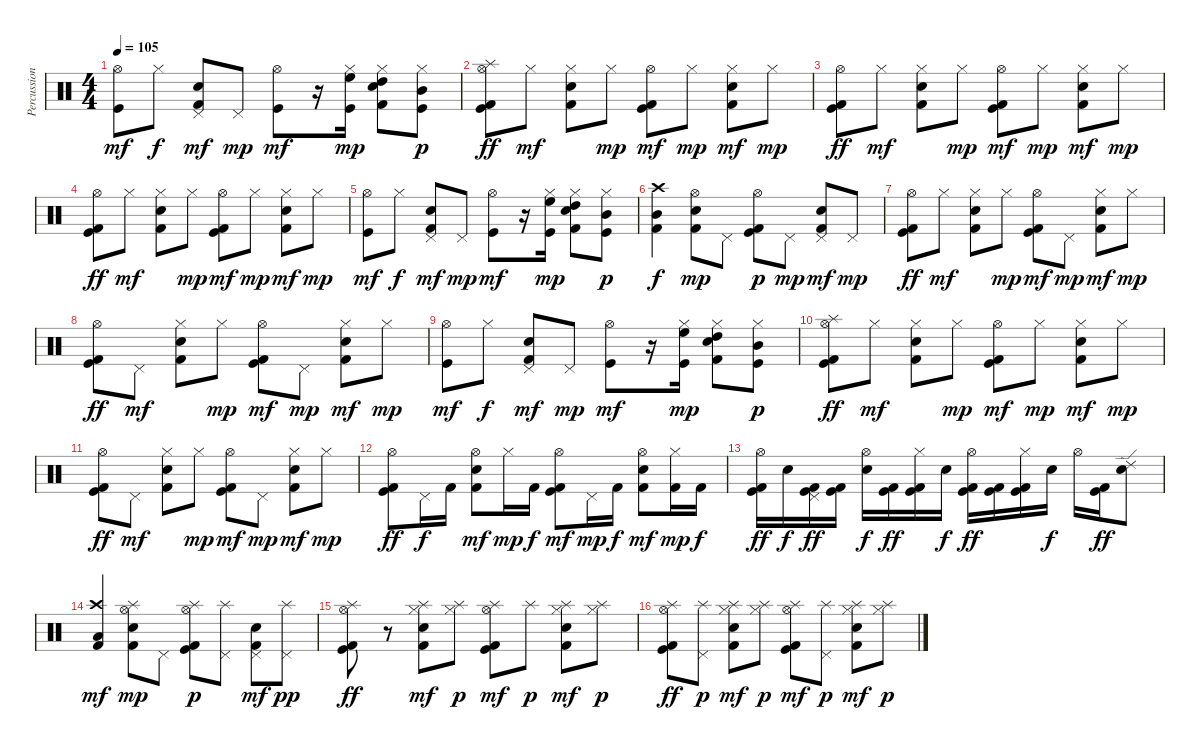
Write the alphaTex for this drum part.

\track ("Percussion" "Percussion") {instrument percussion}
\staff {score}
\articulation defaults
\ts (4 4)
\tempo 105
\clef neutral
\ks c
("Hi-Hat (open)" "Kick (hit)").8{dy mf} "Hi-Hat (closed)".8{dy f} ("Electric Snare (hit)" "Pedal Hi-Hat (hit)" "Kick (hit) 2").8{dy mf} "Pedal Hi-Hat (hit)".8{dy mp} ("Hi-Hat (open)" "Kick (hit)").8{dy mf} r.16 ("Hi-Hat (closed)" "High Floor Tom (hit)" "Kick (hit)").16{dy mp} ("Electric Snare (hit)" "Hi-Hat (closed)" "High Tom (hit)" "Kick (hit) 2").8 ("Hi-Hat (closed)" "Mid Tom (hit)" "Kick (hit)").8{dy p} |
("Splash (hit)" "Hi-Hat (open)" "Kick (hit)" "Kick (hit) 2").8{dy ff} "Hi-Hat (closed)".8{dy mf} ("Electric Snare (hit)" "Hi-Hat (closed)" "Kick (hit) 2").8 "Hi-Hat (closed)".8{dy mp} ("Hi-Hat (open)" "Kick (hit)" "Kick (hit) 2").8{dy mf} "Hi-Hat (closed)".8{dy mp} ("Electric Snare (hit)" "Hi-Hat (closed)" "Kick (hit) 2").8{dy mf} "Hi-Hat (closed)".8{dy mp} |
("Hi-Hat (open)" "Kick (hit)" "Kick (hit) 2").8{dy ff} "Hi-Hat (closed)".8{dy mf} ("Electric Snare (hit)" "Hi-Hat (closed)" "Kick (hit) 2").8 "Hi-Hat (closed)".8{dy mp} ("Hi-Hat (open)" "Kick (hit)" "Kick (hit) 2").8{dy mf} "Hi-Hat (closed)".8{dy mp} ("Electric Snare (hit)" "Hi-Hat (closed)" "Kick (hit) 2").8{dy mf} "Hi-Hat (closed)".8{dy mp} |
("Hi-Hat (open)" "Kick (hit)" "Kick (hit) 2").8{dy ff} "Hi-Hat (closed)".8{dy mf} ("Electric Snare (hit)" "Hi-Hat (closed)" "Kick (hit) 2").8 "Hi-Hat (closed)".8{dy mp} ("Hi-Hat (open)" "Kick (hit)" "Kick (hit) 2").8{dy mf} "Hi-Hat (closed)".8{dy mp} ("Electric Snare (hit)" "Hi-Hat (closed)" "Kick (hit) 2").8{dy mf} "Hi-Hat (closed)".8{dy mp} |
("Hi-Hat (open)" "Kick (hit)").8{dy mf} "Hi-Hat (closed)".8{dy f} ("Electric Snare (hit)" "Pedal Hi-Hat (hit)" "Kick (hit) 2").8{dy mf} "Pedal Hi-Hat (hit)".8{dy mp} ("Hi-Hat (open)" "Kick (hit)").8{dy mf} r.16 ("Hi-Hat (closed)" "High Floor Tom (hit)" "Kick (hit)").16{dy mp} ("Electric Snare (hit)" "Hi-Hat (closed)" "High Tom (hit)" "Kick (hit) 2").8 ("Hi-Hat (closed)" "Mid Tom (hit)" "Kick (hit)").8{dy p} |
("Crash high (hit)" "Mid Tom (hit)" "Kick (hit) 2").4{dy f} ("Electric Snare (hit)" "Hi-Hat (open)" "Kick (hit) 2").8{dy mp} "Pedal Hi-Hat (hit)".8 ("Hi-Hat (open)" "Kick (hit)" "Kick (hit) 2").8{dy p} "Pedal Hi-Hat (hit)".8{dy mp} ("Electric Snare (hit)" "Pedal Hi-Hat (hit)" "Kick (hit) 2").8{dy mf} "Pedal Hi-Hat (hit)".8{dy mp} |
("Hi-Hat (open)" "Kick (hit)" "Kick (hit) 2").8{dy ff} "Hi-Hat (closed)".8{dy mf} ("Electric Snare (hit)" "Hi-Hat (closed)" "Kick (hit) 2").8 "Hi-Hat (closed)".8{dy mp} ("Hi-Hat (open)" "Kick (hit)" "Kick (hit) 2").8{dy mf} "Pedal Hi-Hat (hit)".8{dy mp} ("Electric Snare (hit)" "Hi-Hat (closed)" "Kick (hit) 2").8{dy mf} "Hi-Hat (closed)".8{dy mp} |
("Hi-Hat (open)" "Kick (hit)" "Kick (hit) 2").8{dy ff} "Pedal Hi-Hat (hit)".8{dy mf} ("Electric Snare (hit)" "Hi-Hat (closed)" "Kick (hit) 2").8 "Hi-Hat (closed)".8{dy mp} ("Hi-Hat (open)" "Kick (hit)" "Kick (hit) 2").8{dy mf} "Pedal Hi-Hat (hit)".8{dy mp} ("Electric Snare (hit)" "Hi-Hat (closed)" "Kick (hit) 2").8{dy mf} "Hi-Hat (closed)".8{dy mp} |
("Hi-Hat (open)" "Kick (hit)").8{dy mf} "Hi-Hat (closed)".8{dy f} ("Electric Snare (hit)" "Pedal Hi-Hat (hit)" "Kick (hit) 2").8{dy mf} "Pedal Hi-Hat (hit)".8{dy mp} ("Hi-Hat (open)" "Kick (hit)").8{dy mf} r.16 ("Hi-Hat (closed)" "High Floor Tom (hit)" "Kick (hit)").16{dy mp} ("Electric Snare (hit)" "Hi-Hat (closed)" "High Tom (hit)" "Kick (hit) 2").8 ("Hi-Hat (closed)" "Mid Tom (hit)" "Kick (hit)").8{dy p} |
("Splash (hit)" "Hi-Hat (open)" "Kick (hit)" "Kick (hit) 2").8{dy ff} "Hi-Hat (closed)".8{dy mf} ("Electric Snare (hit)" "Hi-Hat (closed)" "Kick (hit) 2").8 "Hi-Hat (closed)".8{dy mp} ("Hi-Hat (open)" "Kick (hit)" "Kick (hit) 2").8{dy mf} "Hi-Hat (closed)".8{dy mp} ("Electric Snare (hit)" "Hi-Hat (closed)" "Kick (hit) 2").8{dy mf} "Hi-Hat (closed)".8{dy mp} |
("Hi-Hat (open)" "Kick (hit)" "Kick (hit) 2").8{dy ff} "Pedal Hi-Hat (hit)".8{dy mf} ("Electric Snare (hit)" "Hi-Hat (closed)" "Kick (hit) 2").8 "Hi-Hat (closed)".8{dy mp} ("Hi-Hat (open)" "Kick (hit)" "Kick (hit) 2").8{dy mf} "Pedal Hi-Hat (hit)".8{dy mp} ("Electric Snare (hit)" "Hi-Hat (closed)" "Kick (hit) 2").8{dy mf} "Hi-Hat (closed)".8{dy mp} |
("Hi-Hat (open)" "Kick (hit)" "Kick (hit) 2").8{dy ff} "Pedal Hi-Hat (hit)".16{dy f} "Kick (hit) 2".16 ("Electric Snare (hit)" "Hi-Hat (open)" "Kick (hit) 2").8{dy mf} "Hi-Hat (closed)".16{dy mp} "Kick (hit) 2".16{dy f} ("Hi-Hat (open)" "Kick (hit)" "Kick (hit) 2").8{dy mf} "Pedal Hi-Hat (hit)".16{dy mp} "Kick (hit) 2".16{dy f} ("Electric Snare (hit)" "Hi-Hat (open)" "Kick (hit) 2").8{dy mf} ("Hi-Hat (closed)" "Kick (hit) 2").16{dy mp} "Kick (hit) 2".16{dy f} |
("Hi-Hat (open)" "Kick (hit)" "Kick (hit) 2").16{dy ff} "Electric Snare (hit)".16{dy f} ("Pedal Hi-Hat (hit)" "Kick (hit)" "Kick (hit) 2").16{dy ff} ("Kick (hit)" "Kick (hit) 2").16 ("Hi-Hat (open)" "Electric Snare (hit)").16{dy f} ("Kick (hit)" "Kick (hit) 2").16{dy ff} ("Hi-Hat (closed)" "Kick (hit)" "Kick (hit) 2").16 "Electric Snare (hit)".16{dy f} ("Hi-Hat (open)" "Kick (hit)" "Kick (hit) 2").16{dy ff} ("Kick (hit)" "Kick (hit) 2").16 ("Hi-Hat (closed)" "Kick (hit)" "Kick (hit) 2").16 "Electric Snare (hit)".16{dy f} "Hi-Hat (open)".16 ("Kick (hit)" "Kick (hit) 2").16{dy ff} ("Electric Snare (hit)" "Ride (edge) 2").8 |
("Crash high (hit)" "Low Floor Tom (hit)" "Kick (hit) 2").4{dy mf} ("Electric Snare (hit)" "Hi-Hat (open)" "Splash (hit)" "Kick (hit) 2").8{dy mp} "Pedal Hi-Hat (hit)".8 ("Hi-Hat (open)" "Splash (hit)" "Kick (hit)" "Kick (hit) 2").8{dy p} ("Pedal Hi-Hat (hit)" "Splash (hit)").8 ("Electric Snare (hit)" "Pedal Hi-Hat (hit)" "Kick (hit) 2").8{dy mf} ("Pedal Hi-Hat (hit)" "Splash (hit)").8{dy pp} |
("Hi-Hat (open)" "Splash (hit)" "Kick (hit)" "Kick (hit) 2").8{dy ff} r.8 ("Electric Snare (hit)" "Hi-Hat (closed)" "Splash (hit)" "Kick (hit) 2").8{dy mf} ("Hi-Hat (closed)" "Splash (hit)").8{dy p} ("Hi-Hat (open)" "Splash (hit)" "Kick (hit)" "Kick (hit) 2").8{dy mf} "Splash (hit)".8{dy p} ("Electric Snare (hit)" "Hi-Hat (closed)" "Splash (hit)" "Kick (hit) 2").8{dy mf} ("Hi-Hat (closed)" "Splash (hit)").8{dy p} |
("Hi-Hat (open)" "Splash (hit)" "Kick (hit)" "Kick (hit) 2").8{dy ff} ("Pedal Hi-Hat (hit)" "Splash (hit)").8{dy p} ("Electric Snare (hit)" "Hi-Hat (closed)" "Splash (hit)" "Kick (hit) 2").8{dy mf} ("Hi-Hat (closed)" "Splash (hit)").8{dy p} ("Hi-Hat (open)" "Splash (hit)" "Kick (hit)" "Kick (hit) 2").8{dy mf} ("Pedal Hi-Hat (hit)" "Splash (hit)").8{dy p} ("Electric Snare (hit)" "Hi-Hat (closed)" "Splash (hit)" "Kick (hit) 2").8{dy mf} ("Hi-Hat (closed)" "Splash (hit)").8{dy p}
